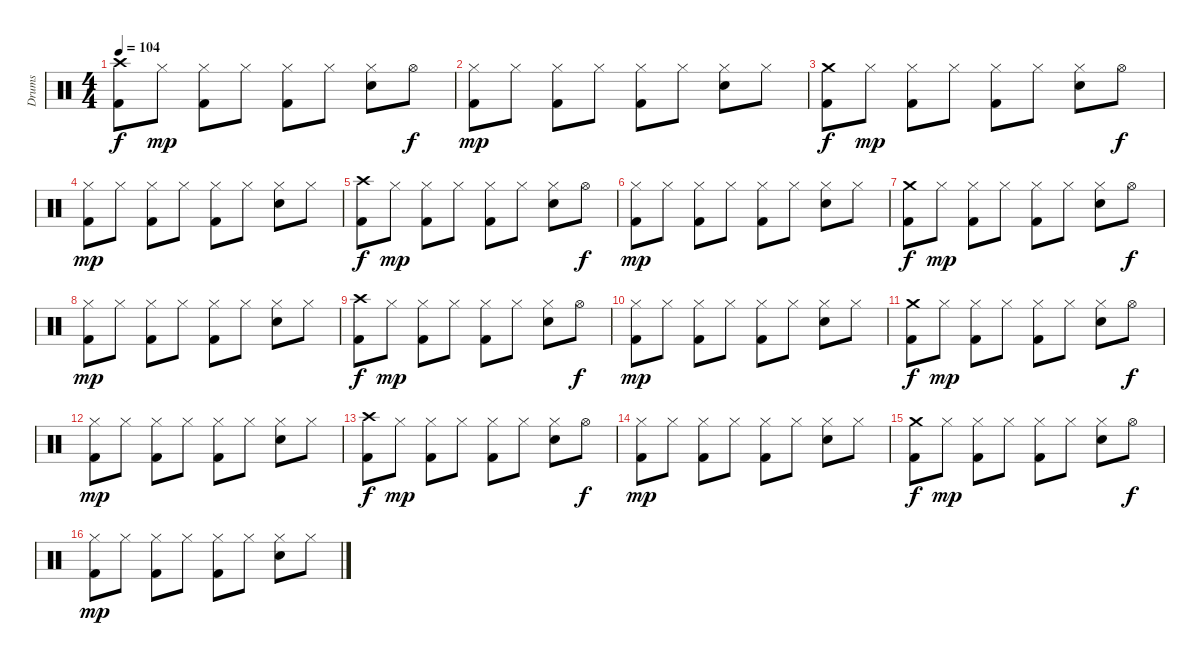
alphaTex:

\track ("Drums" "Drums") {instrument percussion}
\staff {score}
\articulation defaults
\ts (4 4)
\tempo 104
\clef neutral
\ks c
("Crash high (hit)" "Kick (hit) 2").8{dy f} "Hi-Hat (closed)".8{dy mp} ("Hi-Hat (closed)" "Kick (hit) 2").8 "Hi-Hat (closed)".8 ("Hi-Hat (closed)" "Kick (hit) 2").8 "Hi-Hat (closed)".8 ("Hi-Hat (closed)" "Snare (hit) 2").8 "Hi-Hat (open)".8{dy f} |
("Hi-Hat (closed)" "Kick (hit) 2").8{dy mp} "Hi-Hat (closed)".8 ("Hi-Hat (closed)" "Kick (hit) 2").8 "Hi-Hat (closed)".8 ("Hi-Hat (closed)" "Kick (hit) 2").8 "Hi-Hat (closed)".8 ("Hi-Hat (closed)" "Snare (hit) 2").8 "Hi-Hat (closed)".8 |
("Crash medium (hit)" "Kick (hit) 2").8{dy f} "Hi-Hat (closed)".8{dy mp} ("Hi-Hat (closed)" "Kick (hit) 2").8 "Hi-Hat (closed)".8 ("Hi-Hat (closed)" "Kick (hit) 2").8 "Hi-Hat (closed)".8 ("Hi-Hat (closed)" "Snare (hit) 2").8 "Hi-Hat (open)".8{dy f} |
("Hi-Hat (closed)" "Kick (hit) 2").8{dy mp} "Hi-Hat (closed)".8 ("Hi-Hat (closed)" "Kick (hit) 2").8 "Hi-Hat (closed)".8 ("Hi-Hat (closed)" "Kick (hit) 2").8 "Hi-Hat (closed)".8 ("Hi-Hat (closed)" "Snare (hit) 2").8 "Hi-Hat (closed)".8 |
("Crash high (hit)" "Kick (hit) 2").8{dy f} "Hi-Hat (closed)".8{dy mp} ("Hi-Hat (closed)" "Kick (hit) 2").8 "Hi-Hat (closed)".8 ("Hi-Hat (closed)" "Kick (hit) 2").8 "Hi-Hat (closed)".8 ("Hi-Hat (closed)" "Snare (hit) 2").8 "Hi-Hat (open)".8{dy f} |
("Hi-Hat (closed)" "Kick (hit) 2").8{dy mp} "Hi-Hat (closed)".8 ("Hi-Hat (closed)" "Kick (hit) 2").8 "Hi-Hat (closed)".8 ("Hi-Hat (closed)" "Kick (hit) 2").8 "Hi-Hat (closed)".8 ("Hi-Hat (closed)" "Snare (hit) 2").8 "Hi-Hat (closed)".8 |
("Crash medium (hit)" "Kick (hit) 2").8{dy f} "Hi-Hat (closed)".8{dy mp} ("Hi-Hat (closed)" "Kick (hit) 2").8 "Hi-Hat (closed)".8 ("Hi-Hat (closed)" "Kick (hit) 2").8 "Hi-Hat (closed)".8 ("Hi-Hat (closed)" "Snare (hit) 2").8 "Hi-Hat (open)".8{dy f} |
("Hi-Hat (closed)" "Kick (hit) 2").8{dy mp} "Hi-Hat (closed)".8 ("Hi-Hat (closed)" "Kick (hit) 2").8 "Hi-Hat (closed)".8 ("Hi-Hat (closed)" "Kick (hit) 2").8 "Hi-Hat (closed)".8 ("Hi-Hat (closed)" "Snare (hit) 2").8 "Hi-Hat (closed)".8 |
("Crash high (hit)" "Kick (hit) 2").8{dy f} "Hi-Hat (closed)".8{dy mp} ("Hi-Hat (closed)" "Kick (hit) 2").8 "Hi-Hat (closed)".8 ("Hi-Hat (closed)" "Kick (hit) 2").8 "Hi-Hat (closed)".8 ("Hi-Hat (closed)" "Snare (hit) 2").8 "Hi-Hat (open)".8{dy f} |
("Hi-Hat (closed)" "Kick (hit) 2").8{dy mp} "Hi-Hat (closed)".8 ("Hi-Hat (closed)" "Kick (hit) 2").8 "Hi-Hat (closed)".8 ("Hi-Hat (closed)" "Kick (hit) 2").8 "Hi-Hat (closed)".8 ("Hi-Hat (closed)" "Snare (hit) 2").8 "Hi-Hat (closed)".8 |
("Crash medium (hit)" "Kick (hit) 2").8{dy f} "Hi-Hat (closed)".8{dy mp} ("Hi-Hat (closed)" "Kick (hit) 2").8 "Hi-Hat (closed)".8 ("Hi-Hat (closed)" "Kick (hit) 2").8 "Hi-Hat (closed)".8 ("Hi-Hat (closed)" "Snare (hit) 2").8 "Hi-Hat (open)".8{dy f} |
("Hi-Hat (closed)" "Kick (hit) 2").8{dy mp} "Hi-Hat (closed)".8 ("Hi-Hat (closed)" "Kick (hit) 2").8 "Hi-Hat (closed)".8 ("Hi-Hat (closed)" "Kick (hit) 2").8 "Hi-Hat (closed)".8 ("Hi-Hat (closed)" "Snare (hit) 2").8 "Hi-Hat (closed)".8 |
("Crash high (hit)" "Kick (hit) 2").8{dy f} "Hi-Hat (closed)".8{dy mp} ("Hi-Hat (closed)" "Kick (hit) 2").8 "Hi-Hat (closed)".8 ("Hi-Hat (closed)" "Kick (hit) 2").8 "Hi-Hat (closed)".8 ("Hi-Hat (closed)" "Snare (hit) 2").8 "Hi-Hat (open)".8{dy f} |
("Hi-Hat (closed)" "Kick (hit) 2").8{dy mp} "Hi-Hat (closed)".8 ("Hi-Hat (closed)" "Kick (hit) 2").8 "Hi-Hat (closed)".8 ("Hi-Hat (closed)" "Kick (hit) 2").8 "Hi-Hat (closed)".8 ("Hi-Hat (closed)" "Snare (hit) 2").8 "Hi-Hat (closed)".8 |
("Crash medium (hit)" "Kick (hit) 2").8{dy f} "Hi-Hat (closed)".8{dy mp} ("Hi-Hat (closed)" "Kick (hit) 2").8 "Hi-Hat (closed)".8 ("Hi-Hat (closed)" "Kick (hit) 2").8 "Hi-Hat (closed)".8 ("Hi-Hat (closed)" "Snare (hit) 2").8 "Hi-Hat (open)".8{dy f} |
("Hi-Hat (closed)" "Kick (hit) 2").8{dy mp} "Hi-Hat (closed)".8 ("Hi-Hat (closed)" "Kick (hit) 2").8 "Hi-Hat (closed)".8 ("Hi-Hat (closed)" "Kick (hit) 2").8 "Hi-Hat (closed)".8 ("Hi-Hat (closed)" "Snare (hit) 2").8 "Hi-Hat (closed)".8
